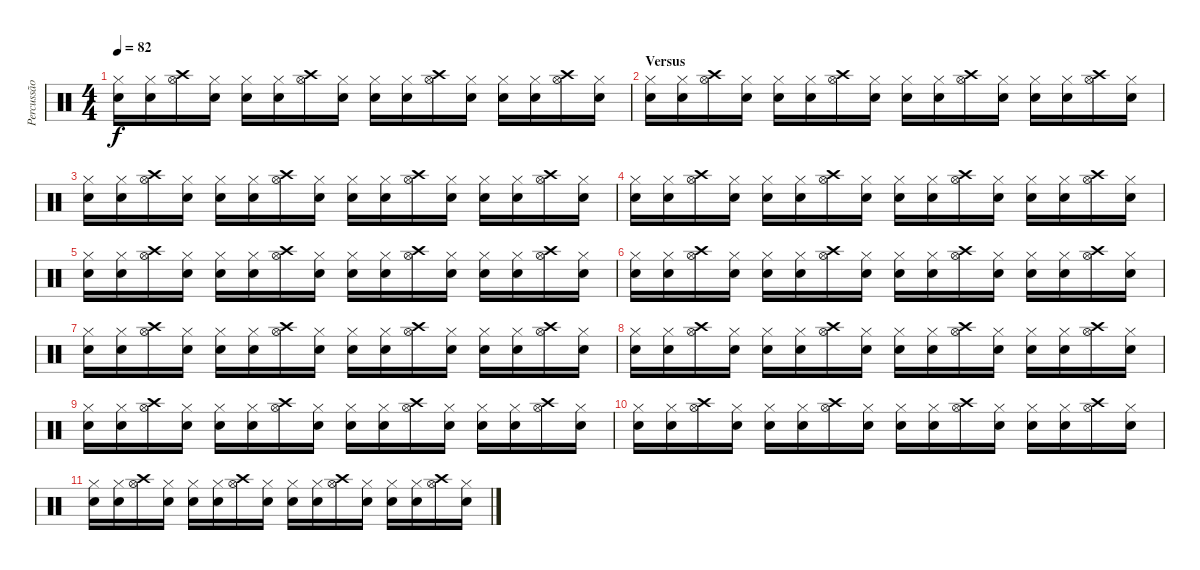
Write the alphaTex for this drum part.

\track ("Percussão" "Percussão") {instrument percussion}
\staff {score}
\articulation defaults
\ts (4 4)
\tempo 82
\clef neutral
\ks c
("Snare (hit) 2" "Hi-Hat (closed)").16{dy f} ("Snare (hit) 2" "Hi-Hat (closed)").16 ("Hi-Hat (open)" "Crash high (hit)").16 ("Snare (hit) 2" "Hi-Hat (closed)").16 ("Snare (hit) 2" "Hi-Hat (closed)").16 ("Snare (hit) 2" "Hi-Hat (closed)").16 ("Hi-Hat (open)" "Crash high (hit)").16 ("Snare (hit) 2" "Hi-Hat (closed)").16 ("Snare (hit) 2" "Hi-Hat (closed)").16 ("Snare (hit) 2" "Hi-Hat (closed)").16 ("Hi-Hat (open)" "Crash high (hit)").16 ("Snare (hit) 2" "Hi-Hat (closed)").16 ("Snare (hit) 2" "Hi-Hat (closed)").16 ("Snare (hit) 2" "Hi-Hat (closed)").16 ("Hi-Hat (open)" "Crash high (hit)").16 ("Snare (hit) 2" "Hi-Hat (closed)").16 |
\section ("" "Versus")
("Snare (hit) 2" "Hi-Hat (closed)").16 ("Snare (hit) 2" "Hi-Hat (closed)").16 ("Hi-Hat (open)" "Crash high (hit)").16 ("Snare (hit) 2" "Hi-Hat (closed)").16 ("Snare (hit) 2" "Hi-Hat (closed)").16 ("Snare (hit) 2" "Hi-Hat (closed)").16 ("Hi-Hat (open)" "Crash high (hit)").16 ("Snare (hit) 2" "Hi-Hat (closed)").16 ("Snare (hit) 2" "Hi-Hat (closed)").16 ("Snare (hit) 2" "Hi-Hat (closed)").16 ("Hi-Hat (open)" "Crash high (hit)").16 ("Snare (hit) 2" "Hi-Hat (closed)").16 ("Snare (hit) 2" "Hi-Hat (closed)").16 ("Snare (hit) 2" "Hi-Hat (closed)").16 ("Hi-Hat (open)" "Crash high (hit)").16 ("Snare (hit) 2" "Hi-Hat (closed)").16 |
("Snare (hit) 2" "Hi-Hat (closed)").16 ("Snare (hit) 2" "Hi-Hat (closed)").16 ("Hi-Hat (open)" "Crash high (hit)").16 ("Snare (hit) 2" "Hi-Hat (closed)").16 ("Snare (hit) 2" "Hi-Hat (closed)").16 ("Snare (hit) 2" "Hi-Hat (closed)").16 ("Hi-Hat (open)" "Crash high (hit)").16 ("Snare (hit) 2" "Hi-Hat (closed)").16 ("Snare (hit) 2" "Hi-Hat (closed)").16 ("Snare (hit) 2" "Hi-Hat (closed)").16 ("Hi-Hat (open)" "Crash high (hit)").16 ("Snare (hit) 2" "Hi-Hat (closed)").16 ("Snare (hit) 2" "Hi-Hat (closed)").16 ("Snare (hit) 2" "Hi-Hat (closed)").16 ("Hi-Hat (open)" "Crash high (hit)").16 ("Snare (hit) 2" "Hi-Hat (closed)").16 |
("Snare (hit) 2" "Hi-Hat (closed)").16 ("Snare (hit) 2" "Hi-Hat (closed)").16 ("Hi-Hat (open)" "Crash high (hit)").16 ("Snare (hit) 2" "Hi-Hat (closed)").16 ("Snare (hit) 2" "Hi-Hat (closed)").16 ("Snare (hit) 2" "Hi-Hat (closed)").16 ("Hi-Hat (open)" "Crash high (hit)").16 ("Snare (hit) 2" "Hi-Hat (closed)").16 ("Snare (hit) 2" "Hi-Hat (closed)").16 ("Snare (hit) 2" "Hi-Hat (closed)").16 ("Hi-Hat (open)" "Crash high (hit)").16 ("Snare (hit) 2" "Hi-Hat (closed)").16 ("Snare (hit) 2" "Hi-Hat (closed)").16 ("Snare (hit) 2" "Hi-Hat (closed)").16 ("Hi-Hat (open)" "Crash high (hit)").16 ("Snare (hit) 2" "Hi-Hat (closed)").16 |
("Snare (hit) 2" "Hi-Hat (closed)").16 ("Snare (hit) 2" "Hi-Hat (closed)").16 ("Hi-Hat (open)" "Crash high (hit)").16 ("Snare (hit) 2" "Hi-Hat (closed)").16 ("Snare (hit) 2" "Hi-Hat (closed)").16 ("Snare (hit) 2" "Hi-Hat (closed)").16 ("Hi-Hat (open)" "Crash high (hit)").16 ("Snare (hit) 2" "Hi-Hat (closed)").16 ("Snare (hit) 2" "Hi-Hat (closed)").16 ("Snare (hit) 2" "Hi-Hat (closed)").16 ("Hi-Hat (open)" "Crash high (hit)").16 ("Snare (hit) 2" "Hi-Hat (closed)").16 ("Snare (hit) 2" "Hi-Hat (closed)").16 ("Snare (hit) 2" "Hi-Hat (closed)").16 ("Hi-Hat (open)" "Crash high (hit)").16 ("Snare (hit) 2" "Hi-Hat (closed)").16 |
("Snare (hit) 2" "Hi-Hat (closed)").16 ("Snare (hit) 2" "Hi-Hat (closed)").16 ("Hi-Hat (open)" "Crash high (hit)").16 ("Snare (hit) 2" "Hi-Hat (closed)").16 ("Snare (hit) 2" "Hi-Hat (closed)").16 ("Snare (hit) 2" "Hi-Hat (closed)").16 ("Hi-Hat (open)" "Crash high (hit)").16 ("Snare (hit) 2" "Hi-Hat (closed)").16 ("Snare (hit) 2" "Hi-Hat (closed)").16 ("Snare (hit) 2" "Hi-Hat (closed)").16 ("Hi-Hat (open)" "Crash high (hit)").16 ("Snare (hit) 2" "Hi-Hat (closed)").16 ("Snare (hit) 2" "Hi-Hat (closed)").16 ("Snare (hit) 2" "Hi-Hat (closed)").16 ("Hi-Hat (open)" "Crash high (hit)").16 ("Snare (hit) 2" "Hi-Hat (closed)").16 |
("Snare (hit) 2" "Hi-Hat (closed)").16 ("Snare (hit) 2" "Hi-Hat (closed)").16 ("Hi-Hat (open)" "Crash high (hit)").16 ("Snare (hit) 2" "Hi-Hat (closed)").16 ("Snare (hit) 2" "Hi-Hat (closed)").16 ("Snare (hit) 2" "Hi-Hat (closed)").16 ("Hi-Hat (open)" "Crash high (hit)").16 ("Snare (hit) 2" "Hi-Hat (closed)").16 ("Snare (hit) 2" "Hi-Hat (closed)").16 ("Snare (hit) 2" "Hi-Hat (closed)").16 ("Hi-Hat (open)" "Crash high (hit)").16 ("Snare (hit) 2" "Hi-Hat (closed)").16 ("Snare (hit) 2" "Hi-Hat (closed)").16 ("Snare (hit) 2" "Hi-Hat (closed)").16 ("Hi-Hat (open)" "Crash high (hit)").16 ("Snare (hit) 2" "Hi-Hat (closed)").16 |
("Snare (hit) 2" "Hi-Hat (closed)").16 ("Snare (hit) 2" "Hi-Hat (closed)").16 ("Hi-Hat (open)" "Crash high (hit)").16 ("Snare (hit) 2" "Hi-Hat (closed)").16 ("Snare (hit) 2" "Hi-Hat (closed)").16 ("Snare (hit) 2" "Hi-Hat (closed)").16 ("Hi-Hat (open)" "Crash high (hit)").16 ("Snare (hit) 2" "Hi-Hat (closed)").16 ("Snare (hit) 2" "Hi-Hat (closed)").16 ("Snare (hit) 2" "Hi-Hat (closed)").16 ("Hi-Hat (open)" "Crash high (hit)").16 ("Snare (hit) 2" "Hi-Hat (closed)").16 ("Snare (hit) 2" "Hi-Hat (closed)").16 ("Snare (hit) 2" "Hi-Hat (closed)").16 ("Hi-Hat (open)" "Crash high (hit)").16 ("Snare (hit) 2" "Hi-Hat (closed)").16 |
("Snare (hit) 2" "Hi-Hat (closed)").16 ("Snare (hit) 2" "Hi-Hat (closed)").16 ("Hi-Hat (open)" "Crash high (hit)").16 ("Snare (hit) 2" "Hi-Hat (closed)").16 ("Snare (hit) 2" "Hi-Hat (closed)").16 ("Snare (hit) 2" "Hi-Hat (closed)").16 ("Hi-Hat (open)" "Crash high (hit)").16 ("Snare (hit) 2" "Hi-Hat (closed)").16 ("Snare (hit) 2" "Hi-Hat (closed)").16 ("Snare (hit) 2" "Hi-Hat (closed)").16 ("Hi-Hat (open)" "Crash high (hit)").16 ("Snare (hit) 2" "Hi-Hat (closed)").16 ("Snare (hit) 2" "Hi-Hat (closed)").16 ("Snare (hit) 2" "Hi-Hat (closed)").16 ("Hi-Hat (open)" "Crash high (hit)").16 ("Snare (hit) 2" "Hi-Hat (closed)").16 |
("Snare (hit) 2" "Hi-Hat (closed)").16 ("Snare (hit) 2" "Hi-Hat (closed)").16 ("Hi-Hat (open)" "Crash high (hit)").16 ("Snare (hit) 2" "Hi-Hat (closed)").16 ("Snare (hit) 2" "Hi-Hat (closed)").16 ("Snare (hit) 2" "Hi-Hat (closed)").16 ("Hi-Hat (open)" "Crash high (hit)").16 ("Snare (hit) 2" "Hi-Hat (closed)").16 ("Snare (hit) 2" "Hi-Hat (closed)").16 ("Snare (hit) 2" "Hi-Hat (closed)").16 ("Hi-Hat (open)" "Crash high (hit)").16 ("Snare (hit) 2" "Hi-Hat (closed)").16 ("Snare (hit) 2" "Hi-Hat (closed)").16 ("Snare (hit) 2" "Hi-Hat (closed)").16 ("Hi-Hat (open)" "Crash high (hit)").16 ("Snare (hit) 2" "Hi-Hat (closed)").16 |
("Snare (hit) 2" "Hi-Hat (closed)").16 ("Snare (hit) 2" "Hi-Hat (closed)").16 ("Hi-Hat (open)" "Crash high (hit)").16 ("Snare (hit) 2" "Hi-Hat (closed)").16 ("Snare (hit) 2" "Hi-Hat (closed)").16 ("Snare (hit) 2" "Hi-Hat (closed)").16 ("Hi-Hat (open)" "Crash high (hit)").16 ("Snare (hit) 2" "Hi-Hat (closed)").16 ("Snare (hit) 2" "Hi-Hat (closed)").16 ("Snare (hit) 2" "Hi-Hat (closed)").16 ("Hi-Hat (open)" "Crash high (hit)").16 ("Snare (hit) 2" "Hi-Hat (closed)").16 ("Snare (hit) 2" "Hi-Hat (closed)").16 ("Snare (hit) 2" "Hi-Hat (closed)").16 ("Hi-Hat (open)" "Crash high (hit)").16 ("Snare (hit) 2" "Hi-Hat (closed)").16
